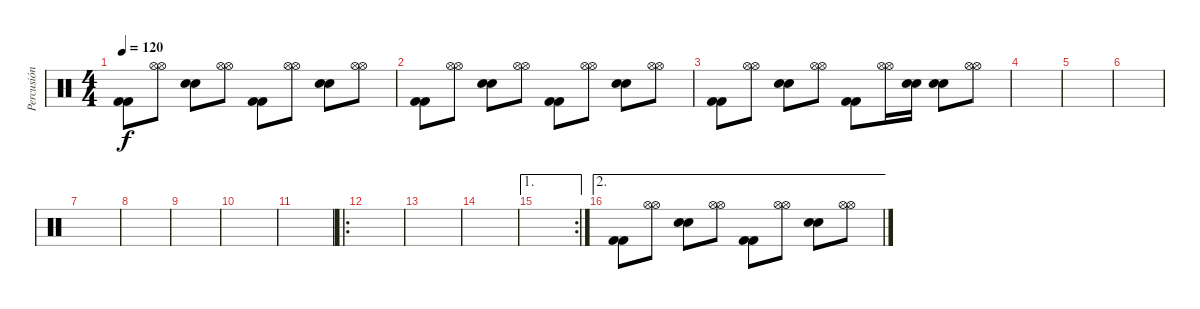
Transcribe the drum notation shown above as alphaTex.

\track ("Percusión" "Percusión") {instrument percussion}
\staff {score}
\articulation defaults
\ts (4 4)
\tempo 120
\clef neutral
\ks c
("Kick (hit) 2" "Kick (hit) 2").8{dy f} ("Hi-Hat (open)" "Hi-Hat (open)").8 ("Electric Snare (hit)" "Electric Snare (hit)").8 ("Hi-Hat (open)" "Hi-Hat (open)").8 ("Kick (hit) 2" "Kick (hit) 2").8 ("Hi-Hat (open)" "Hi-Hat (open)").8 ("Electric Snare (hit)" "Electric Snare (hit)").8 ("Hi-Hat (open)" "Hi-Hat (open)").8 |
("Kick (hit) 2" "Kick (hit) 2").8 ("Hi-Hat (open)" "Hi-Hat (open)").8 ("Electric Snare (hit)" "Electric Snare (hit)").8 ("Hi-Hat (open)" "Hi-Hat (open)").8 ("Kick (hit) 2" "Kick (hit) 2").8 ("Hi-Hat (open)" "Hi-Hat (open)").8 ("Electric Snare (hit)" "Electric Snare (hit)").8 ("Hi-Hat (open)" "Hi-Hat (open)").8 |
("Kick (hit) 2" "Kick (hit) 2").8 ("Hi-Hat (open)" "Hi-Hat (open)").8 ("Electric Snare (hit)" "Electric Snare (hit)").8 ("Hi-Hat (open)" "Hi-Hat (open)").8 ("Kick (hit) 2" "Kick (hit) 2").8 ("Hi-Hat (open)" "Hi-Hat (open)").16 ("Electric Snare (hit)" "Electric Snare (hit)").16 ("Electric Snare (hit)" "Electric Snare (hit)").8 ("Hi-Hat (open)" "Hi-Hat (open)").8 |
|
|
|
|
|
|
|
|
\ro
|
|
|
\ae 1
\rc 2
|
\ae 2
("Kick (hit) 2" "Kick (hit) 2").8 ("Hi-Hat (open)" "Hi-Hat (open)").8 ("Electric Snare (hit)" "Electric Snare (hit)").8 ("Hi-Hat (open)" "Hi-Hat (open)").8 ("Kick (hit) 2" "Kick (hit) 2").8 ("Hi-Hat (open)" "Hi-Hat (open)").8 ("Electric Snare (hit)" "Electric Snare (hit)").8 ("Hi-Hat (open)" "Hi-Hat (open)").8
